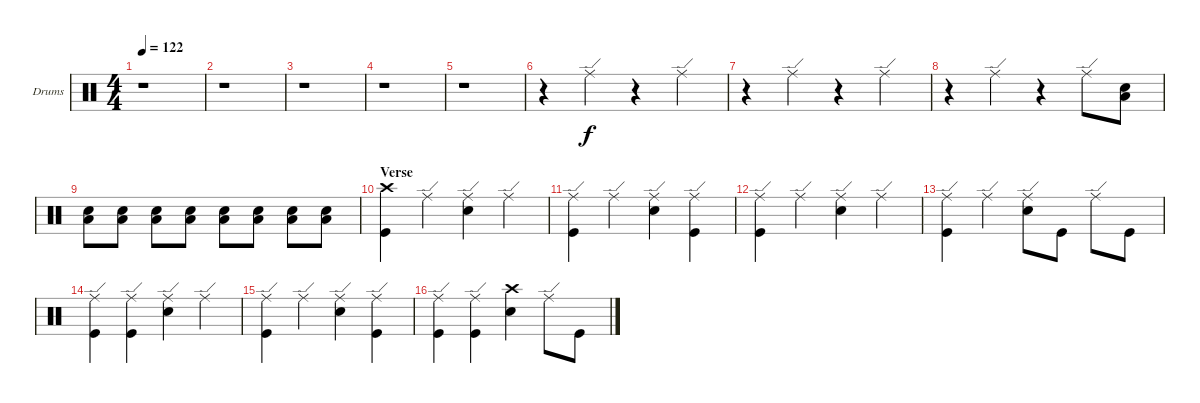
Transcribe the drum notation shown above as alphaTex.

\bracketExtendMode groupsimilarinstruments
\firstSystemTrackNameOrientation horizontal
\otherSystemsTrackNameOrientation horizontal
\track ("Drumkit" "Drums") {instrument percussion}
\staff {score}
\articulation defaults
\ts (4 4)
\tempo 122
\clef neutral
\ks c
r.1{dy f} |
r.1 |
r.1 |
r.1 |
r.1 |
r.4 "Ride (edge)".4 r.4 "Ride (edge)".4 |
r.4 "Ride (edge)".4 r.4 "Ride (edge)".4 |
r.4 "Ride (edge)".4 r.4 "Ride (edge)".8 ("Snare (hit) 2" "Low Tom (hit)").8 |
("Snare (hit) 2" "Low Tom (hit)").8 ("Snare (hit) 2" "Low Tom (hit)").8 ("Snare (hit) 2" "Low Tom (hit)").8 ("Snare (hit) 2" "Low Tom (hit)").8 ("Snare (hit) 2" "Low Tom (hit)").8 ("Snare (hit) 2" "Low Tom (hit)").8 ("Snare (hit) 2" "Low Tom (hit)").8 ("Snare (hit) 2" "Low Tom (hit)").8 |
\section ("" "Verse")
("Kick (hit)" "Crash high (hit)").4 "Ride (edge)".4 ("Snare (hit) 2" "Ride (edge)").4 "Ride (edge)".4 |
("Kick (hit)" "Ride (edge)").4 "Ride (edge)".4 ("Snare (hit) 2" "Ride (edge)").4 ("Kick (hit)" "Ride (edge)").4 |
("Kick (hit)" "Ride (edge)").4 "Ride (edge)".4 ("Snare (hit) 2" "Ride (edge)").4 "Ride (edge)".4 |
("Kick (hit)" "Ride (edge)").4 "Ride (edge)".4 ("Snare (hit) 2" "Ride (edge)").8 "Kick (hit)".8 "Ride (edge)".8 "Kick (hit)".8 |
("Kick (hit)" "Ride (edge)").4 ("Kick (hit)" "Ride (edge)").4 ("Snare (hit) 2" "Ride (edge)").4 "Ride (edge)".4 |
("Kick (hit)" "Ride (edge)").4 "Ride (edge)".4 ("Snare (hit) 2" "Ride (edge)").4 ("Kick (hit)" "Ride (edge)").4 |
("Kick (hit)" "Ride (edge)").4 ("Kick (hit)" "Ride (edge)").4 ("Snare (hit) 2" "Crash high (hit)").4 "Ride (edge)".8 "Kick (hit)".8
